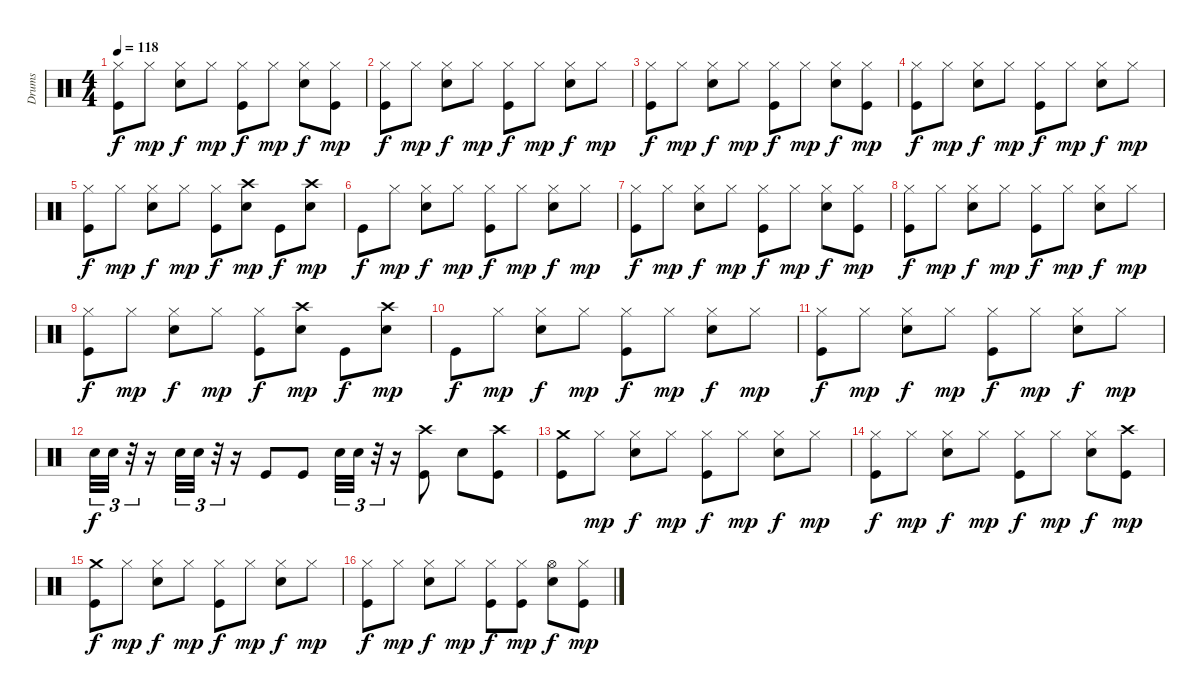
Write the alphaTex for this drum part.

\track ("Drums" "Drums") {instrument percussion}
\staff {score}
\articulation defaults
\ts (4 4)
\tempo 118
\clef neutral
\ks c
("Hi-Hat (closed)" "Kick (hit)").8{dy f} "Hi-Hat (closed)".8{dy mp} ("Hi-Hat (closed)" "Snare (hit) 2").8{dy f} "Hi-Hat (closed)".8{dy mp} ("Hi-Hat (closed)" "Kick (hit)").8{dy f} "Hi-Hat (closed)".8{dy mp} ("Hi-Hat (closed)" "Snare (hit) 2").8{dy f} ("Hi-Hat (closed)" "Kick (hit)").8{dy mp} |
("Hi-Hat (closed)" "Kick (hit)").8{dy f} "Hi-Hat (closed)".8{dy mp} ("Hi-Hat (closed)" "Snare (hit) 2").8{dy f} "Hi-Hat (closed)".8{dy mp} ("Hi-Hat (closed)" "Kick (hit)").8{dy f} "Hi-Hat (closed)".8{dy mp} ("Hi-Hat (closed)" "Snare (hit) 2").8{dy f} "Hi-Hat (closed)".8{dy mp} |
("Hi-Hat (closed)" "Kick (hit)").8{dy f} "Hi-Hat (closed)".8{dy mp} ("Hi-Hat (closed)" "Snare (hit) 2").8{dy f} "Hi-Hat (closed)".8{dy mp} ("Hi-Hat (closed)" "Kick (hit)").8{dy f} "Hi-Hat (closed)".8{dy mp} ("Hi-Hat (closed)" "Snare (hit) 2").8{dy f} ("Hi-Hat (closed)" "Kick (hit)").8{dy mp} |
("Hi-Hat (closed)" "Kick (hit)").8{dy f} "Hi-Hat (closed)".8{dy mp} ("Hi-Hat (closed)" "Snare (hit) 2").8{dy f} "Hi-Hat (closed)".8{dy mp} ("Hi-Hat (closed)" "Kick (hit)").8{dy f} "Hi-Hat (closed)".8{dy mp} ("Hi-Hat (closed)" "Snare (hit) 2").8{dy f} "Hi-Hat (closed)".8{dy mp} |
("Hi-Hat (closed)" "Kick (hit)").8{dy f} "Hi-Hat (closed)".8{dy mp} ("Hi-Hat (closed)" "Snare (hit) 2").8{dy f} "Hi-Hat (closed)".8{dy mp} ("Hi-Hat (closed)" "Kick (hit)").8{dy f} ("Crash high (hit)" "Snare (hit) 2").8{dy mp} "Kick (hit)".8{dy f} ("Crash high (hit)" "Snare (hit) 2").8{dy mp} |
"Kick (hit)".8{dy f} "Hi-Hat (closed)".8{dy mp} ("Hi-Hat (closed)" "Snare (hit) 2").8{dy f} "Hi-Hat (closed)".8{dy mp} ("Hi-Hat (closed)" "Kick (hit)").8{dy f} "Hi-Hat (closed)".8{dy mp} ("Hi-Hat (closed)" "Snare (hit) 2").8{dy f} "Hi-Hat (closed)".8{dy mp} |
("Hi-Hat (closed)" "Kick (hit)").8{dy f} "Hi-Hat (closed)".8{dy mp} ("Hi-Hat (closed)" "Snare (hit) 2").8{dy f} "Hi-Hat (closed)".8{dy mp} ("Hi-Hat (closed)" "Kick (hit)").8{dy f} "Hi-Hat (closed)".8{dy mp} ("Hi-Hat (closed)" "Snare (hit) 2").8{dy f} ("Hi-Hat (closed)" "Kick (hit)").8{dy mp} |
("Hi-Hat (closed)" "Kick (hit)").8{dy f} "Hi-Hat (closed)".8{dy mp} ("Hi-Hat (closed)" "Snare (hit) 2").8{dy f} "Hi-Hat (closed)".8{dy mp} ("Hi-Hat (closed)" "Kick (hit)").8{dy f} "Hi-Hat (closed)".8{dy mp} ("Hi-Hat (closed)" "Snare (hit) 2").8{dy f} "Hi-Hat (closed)".8{dy mp} |
("Hi-Hat (closed)" "Kick (hit)").8{dy f} "Hi-Hat (closed)".8{dy mp} ("Hi-Hat (closed)" "Snare (hit) 2").8{dy f} "Hi-Hat (closed)".8{dy mp} ("Hi-Hat (closed)" "Kick (hit)").8{dy f} ("Crash high (hit)" "Snare (hit) 2").8{dy mp} "Kick (hit)".8{dy f} ("Crash high (hit)" "Snare (hit) 2").8{dy mp} |
"Kick (hit)".8{dy f} "Hi-Hat (closed)".8{dy mp} ("Hi-Hat (closed)" "Snare (hit) 2").8{dy f} "Hi-Hat (closed)".8{dy mp} ("Hi-Hat (closed)" "Kick (hit)").8{dy f} "Hi-Hat (closed)".8{dy mp} ("Hi-Hat (closed)" "Snare (hit) 2").8{dy f} "Hi-Hat (closed)".8{dy mp} |
("Hi-Hat (closed)" "Kick (hit)").8{dy f} "Hi-Hat (closed)".8{dy mp} ("Hi-Hat (closed)" "Snare (hit) 2").8{dy f} "Hi-Hat (closed)".8{dy mp} ("Hi-Hat (closed)" "Kick (hit)").8{dy f} "Hi-Hat (closed)".8{dy mp} ("Hi-Hat (closed)" "Snare (hit) 2").8{dy f} "Hi-Hat (closed)".8{dy mp} |
"Snare (hit) 2".32{tu (3 2) dy f} "Snare (hit) 2".32{tu (3 2)} r.32{tu (3 2)} r.16 "Snare (hit) 2".32{tu (3 2)} "Snare (hit) 2".32{tu (3 2)} r.32{tu (3 2)} r.16 "Kick (hit)".8 "Kick (hit)".8 "Snare (hit) 2".32{tu (3 2)} "Snare (hit) 2".32{tu (3 2)} r.32{tu (3 2)} r.16 ("Crash high (hit)" "Kick (hit)").8 "Snare (hit) 2".8 ("Crash high (hit)" "Kick (hit)").8 |
("Crash medium (hit)" "Kick (hit)").8 "Hi-Hat (closed)".8{dy mp} ("Hi-Hat (closed)" "Snare (hit) 2").8{dy f} "Hi-Hat (closed)".8{dy mp} ("Hi-Hat (closed)" "Kick (hit)").8{dy f} "Hi-Hat (closed)".8{dy mp} ("Hi-Hat (closed)" "Snare (hit) 2").8{dy f} "Hi-Hat (closed)".8{dy mp} |
("Hi-Hat (closed)" "Kick (hit)").8{dy f} "Hi-Hat (closed)".8{dy mp} ("Hi-Hat (closed)" "Snare (hit) 2").8{dy f} "Hi-Hat (closed)".8{dy mp} ("Hi-Hat (closed)" "Kick (hit)").8{dy f} "Hi-Hat (closed)".8{dy mp} ("Hi-Hat (closed)" "Snare (hit) 2").8{dy f} ("Crash high (hit)" "Kick (hit)").8{dy mp} |
("Crash medium (hit)" "Kick (hit)").8{dy f} "Hi-Hat (closed)".8{dy mp} ("Hi-Hat (closed)" "Snare (hit) 2").8{dy f} "Hi-Hat (closed)".8{dy mp} ("Hi-Hat (closed)" "Kick (hit)").8{dy f} "Hi-Hat (closed)".8{dy mp} ("Hi-Hat (closed)" "Snare (hit) 2").8{dy f} "Hi-Hat (closed)".8{dy mp} |
("Hi-Hat (closed)" "Kick (hit)").8{dy f} "Hi-Hat (closed)".8{dy mp} ("Hi-Hat (closed)" "Snare (hit) 2").8{dy f} "Hi-Hat (closed)".8{dy mp} ("Hi-Hat (closed)" "Kick (hit)").8{dy f} ("Hi-Hat (closed)" "Kick (hit)").8{dy mp} ("Hi-Hat (open)" "Snare (hit) 2").8{dy f} ("Hi-Hat (closed)" "Kick (hit)").8{dy mp}
